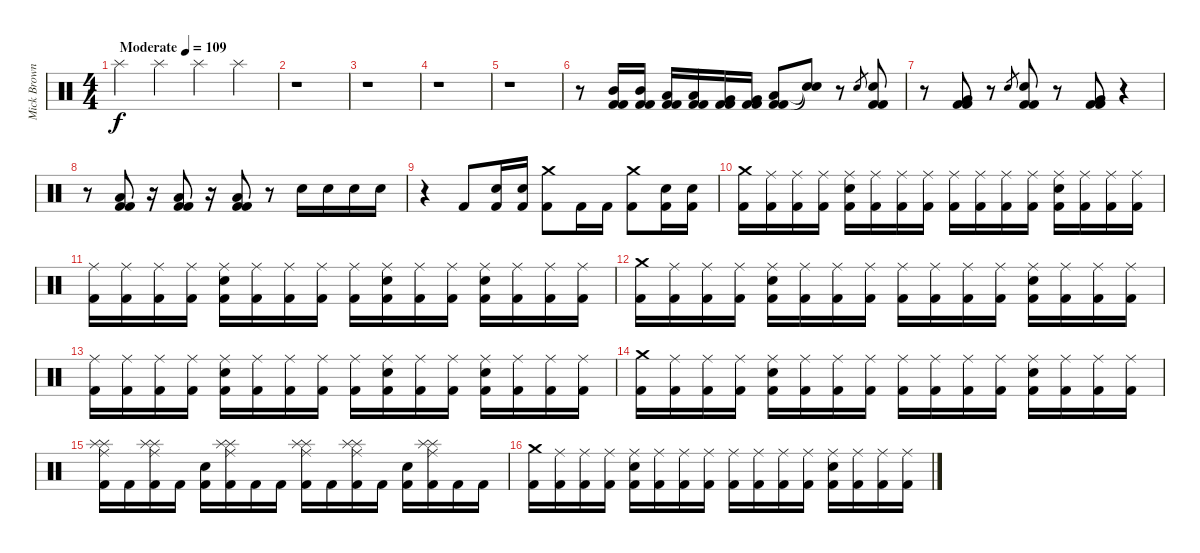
\track ("Mick Brown" "Mick Brown") {instrument percussion}
\staff {score}
\articulation defaults
\ts (4 4)
\tempo (109 "Moderate")
\clef neutral
\ks c "Splash (hit)".4{dy f} "Splash (hit)".4 "Splash (hit)".4 "Splash (hit)".4
|
r.1 |
r.1 |
r.1 |
r.1 |
r.8 ("Mid Tom (hit)" "Kick (hit) 2" "Kick (hit) 2").16 ("Mid Tom (hit)" "Kick (hit) 2" "Kick (hit) 2").16 ("Low Tom (hit)" "Kick (hit) 2" "Kick (hit) 2").16 ("Low Tom (hit)" "Kick (hit) 2" "Kick (hit) 2").16 ("Very Low Tom (hit)" "Kick (hit) 2" "Kick (hit) 2").16 ("Very Low Tom (hit)" "Kick (hit) 2" "Kick (hit) 2").16 ("Low Floor Tom (hit)" "Kick (hit) 2" "Kick (hit) 2").8 ("Snare (hit)"{t} "Snare (hit)"{t}).8 r.8 "Snare (hit) 2".8{gr} ("Snare (hit) 2" "Kick (hit) 2" "Kick (hit) 2").8 |
r.8 ("Very Low Tom (hit)" "Kick (hit) 2" "Kick (hit) 2").8 r.8 "Snare (hit) 2".8{gr} ("Snare (hit) 2" "Kick (hit) 2" "Kick (hit) 2").8 r.8 ("Very Low Tom (hit)" "Kick (hit) 2" "Kick (hit) 2").8 r.4 |
r.8 ("Low Tom (hit)" "Kick (hit) 2" "Kick (hit) 2").8 r.16 ("Low Tom (hit)" "Kick (hit) 2" "Kick (hit) 2").8 r.16 ("Low Tom (hit)" "Kick (hit) 2" "Kick (hit) 2").8 r.8 "Snare (hit) 2".16 "Snare (hit) 2".16 "Snare (hit) 2".16 "Snare (hit) 2".16 |
r.4 "Kick (hit) 2".8 ("Snare (hit) 2" "Kick (hit) 2").16 ("Snare (hit) 2" "Kick (hit) 2").16 ("Crash medium (hit)" "Kick (hit) 2").8 "Kick (hit) 2".16 "Kick (hit) 2".16 ("Crash medium (hit)" "Kick (hit) 2").8 ("Snare (hit) 2" "Kick (hit) 2").16 ("Snare (hit) 2" "Kick (hit) 2").16 |
("Crash medium (hit)" "Kick (hit) 2").16 ("Ride (middle)" "Kick (hit) 2").16 ("Ride (middle)" "Kick (hit) 2").16 ("Ride (middle)" "Kick (hit) 2").16 ("Ride (middle)" "Snare (hit) 2" "Kick (hit) 2").16 ("Ride (middle)" "Kick (hit) 2").16 ("Ride (middle)" "Kick (hit) 2").16 ("Ride (middle)" "Kick (hit) 2").16 ("Ride (middle)" "Kick (hit) 2").16 ("Ride (middle)" "Kick (hit) 2").16 ("Ride (middle)" "Kick (hit) 2").16 ("Ride (middle)" "Kick (hit) 2").16 ("Ride (middle)" "Snare (hit) 2" "Kick (hit) 2").16 ("Ride (middle)" "Kick (hit) 2").16 ("Ride (middle)" "Kick (hit) 2").16 ("Ride (middle)" "Kick (hit) 2").16 |
("Ride (middle)" "Kick (hit) 2").16 ("Ride (middle)" "Kick (hit) 2").16 ("Ride (middle)" "Kick (hit) 2").16 ("Ride (middle)" "Kick (hit) 2").16 ("Ride (middle)" "Snare (hit) 2" "Kick (hit) 2").16 ("Ride (middle)" "Kick (hit) 2").16 ("Ride (middle)" "Kick (hit) 2").16 ("Ride (middle)" "Kick (hit) 2").16 ("Ride (middle)" "Kick (hit) 2").16 ("Ride (middle)" "Snare (hit) 2" "Kick (hit) 2").16 ("Ride (middle)" "Kick (hit) 2").16 ("Ride (middle)" "Kick (hit) 2").16 ("Ride (middle)" "Snare (hit) 2" "Kick (hit) 2").16 ("Ride (middle)" "Kick (hit) 2").16 ("Ride (middle)" "Kick (hit) 2").16 ("Ride (middle)" "Kick (hit) 2").16 |
("Crash medium (hit)" "Kick (hit) 2").16 ("Ride (middle)" "Kick (hit) 2").16 ("Ride (middle)" "Kick (hit) 2").16 ("Ride (middle)" "Kick (hit) 2").16 ("Ride (middle)" "Snare (hit) 2" "Kick (hit) 2").16 ("Ride (middle)" "Kick (hit) 2").16 ("Ride (middle)" "Kick (hit) 2").16 ("Ride (middle)" "Kick (hit) 2").16 ("Ride (middle)" "Kick (hit) 2").16 ("Ride (middle)" "Kick (hit) 2").16 ("Ride (middle)" "Kick (hit) 2").16 ("Ride (middle)" "Kick (hit) 2").16 ("Ride (middle)" "Snare (hit) 2" "Kick (hit) 2").16 ("Ride (middle)" "Kick (hit) 2").16 ("Ride (middle)" "Kick (hit) 2").16 ("Ride (middle)" "Kick (hit) 2").16 |
("Ride (middle)" "Kick (hit) 2").16 ("Ride (middle)" "Kick (hit) 2").16 ("Ride (middle)" "Kick (hit) 2").16 ("Ride (middle)" "Kick (hit) 2").16 ("Ride (middle)" "Snare (hit) 2" "Kick (hit) 2").16 ("Ride (middle)" "Kick (hit) 2").16 ("Ride (middle)" "Kick (hit) 2").16 ("Ride (middle)" "Kick (hit) 2").16 ("Ride (middle)" "Kick (hit) 2").16 ("Ride (middle)" "Snare (hit) 2" "Kick (hit) 2").16 ("Ride (middle)" "Kick (hit) 2").16 ("Ride (middle)" "Kick (hit) 2").16 ("Ride (middle)" "Snare (hit) 2" "Kick (hit) 2").16 ("Ride (middle)" "Kick (hit) 2").16 ("Ride (middle)" "Kick (hit) 2").16 ("Ride (middle)" "Kick (hit) 2").16 |
("Crash medium (hit)" "Kick (hit) 2").16 ("Ride (middle)" "Kick (hit) 2").16 ("Ride (middle)" "Kick (hit) 2").16 ("Ride (middle)" "Kick (hit) 2").16 ("Ride (middle)" "Snare (hit) 2" "Kick (hit) 2").16 ("Ride (middle)" "Kick (hit) 2").16 ("Ride (middle)" "Kick (hit) 2").16 ("Ride (middle)" "Kick (hit) 2").16 ("Ride (middle)" "Kick (hit) 2").16 ("Ride (middle)" "Kick (hit) 2").16 ("Ride (middle)" "Kick (hit) 2").16 ("Ride (middle)" "Kick (hit) 2").16 ("Ride (middle)" "Snare (hit) 2" "Kick (hit) 2").16 ("Ride (middle)" "Kick (hit) 2").16 ("Ride (middle)" "Kick (hit) 2").16 ("Ride (middle)" "Kick (hit) 2").16 |
("Splash (hit)" "Ride (middle)" "Splash (hit)" "Kick (hit) 2").16 "Kick (hit) 2".16 ("Splash (hit)" "Ride (middle)" "Splash (hit)" "Kick (hit) 2").16 "Kick (hit) 2".16 ("Snare (hit) 2" "Kick (hit) 2").16 ("Splash (hit)" "Ride (middle)" "Splash (hit)" "Kick (hit) 2").16 "Kick (hit) 2".16 "Kick (hit) 2".16 ("Splash (hit)" "Ride (middle)" "Splash (hit)" "Kick (hit) 2").16 "Kick (hit) 2".16 ("Splash (hit)" "Ride (middle)" "Splash (hit)" "Kick (hit) 2").16 "Kick (hit) 2".16 ("Snare (hit) 2" "Kick (hit) 2").16 ("Splash (hit)" "Ride (middle)" "Splash (hit)" "Kick (hit) 2").16 "Kick (hit) 2".16 "Kick (hit) 2".16 |
("Crash medium (hit)" "Kick (hit) 2").16 ("Ride (middle)" "Kick (hit) 2").16 ("Ride (middle)" "Kick (hit) 2").16 ("Ride (middle)" "Kick (hit) 2").16 ("Ride (middle)" "Snare (hit) 2" "Kick (hit) 2").16 ("Ride (middle)" "Kick (hit) 2").16 ("Ride (middle)" "Kick (hit) 2").16 ("Ride (middle)" "Kick (hit) 2").16 ("Ride (middle)" "Kick (hit) 2").16 ("Ride (middle)" "Kick (hit) 2").16 ("Ride (middle)" "Kick (hit) 2").16 ("Ride (middle)" "Kick (hit) 2").16 ("Ride (middle)" "Snare (hit) 2" "Kick (hit) 2").16 ("Ride (middle)" "Kick (hit) 2").16 ("Ride (middle)" "Kick (hit) 2").16 ("Ride (middle)" "Kick (hit) 2").16
